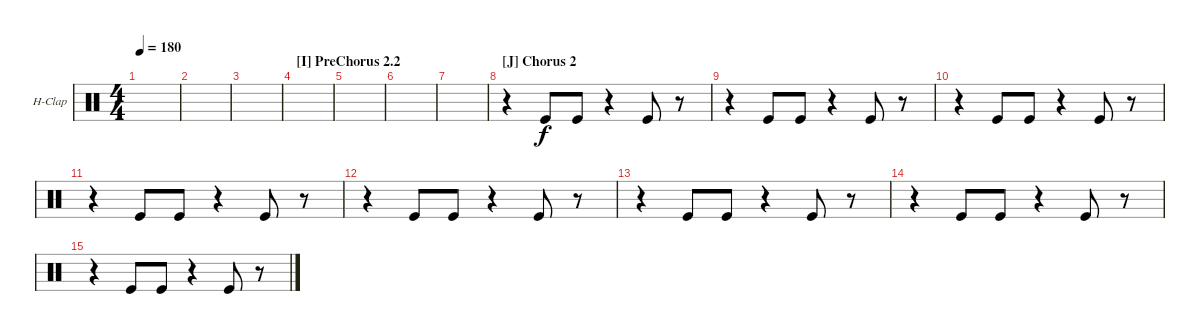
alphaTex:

\defaultSystemsLayout 4
\bracketExtendMode groupsimilarinstruments
\firstSystemTrackNameOrientation horizontal
\otherSystemsTrackNameOrientation horizontal
\track ("Hand Clap" "H-Clap") {instrument percussion}
\staff {score}
\articulation defaults
\ts (4 4)
\tempo 180
\clef neutral
\ks c
|
|
|
\section ("I" "PreChorus 2.2")
|
|
|
|
\section ("J" "Chorus 2")
r.4 "Kick (hit)".8 "Kick (hit)".8 r.4 "Kick (hit)".8 r.8 |
r.4 "Kick (hit)".8 "Kick (hit)".8 r.4 "Kick (hit)".8 r.8 |
r.4 "Kick (hit)".8 "Kick (hit)".8 r.4 "Kick (hit)".8 r.8 |
r.4 "Kick (hit)".8 "Kick (hit)".8 r.4 "Kick (hit)".8 r.8 |
r.4 "Kick (hit)".8 "Kick (hit)".8 r.4 "Kick (hit)".8 r.8 |
r.4 "Kick (hit)".8 "Kick (hit)".8 r.4 "Kick (hit)".8 r.8 |
r.4 "Kick (hit)".8 "Kick (hit)".8 r.4 "Kick (hit)".8 r.8 |
r.4 "Kick (hit)".8 "Kick (hit)".8 r.4 "Kick (hit)".8 r.8
